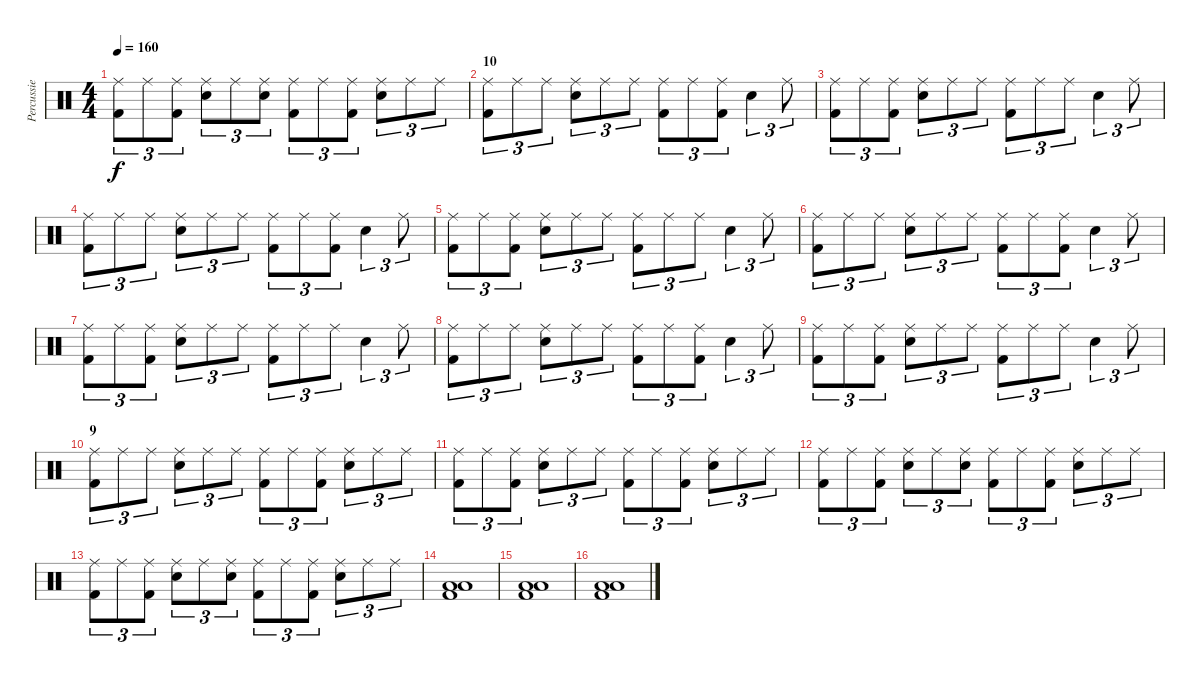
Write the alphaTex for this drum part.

\track ("Percussie" "Percussie") {instrument percussion}
\staff {score}
\articulation defaults
\ts (4 4)
\tempo 160
\clef neutral
\ks c
("Ride (middle)" "Kick (hit) 2").8{tu (3 2) dy f} "Ride (middle)".8{tu (3 2)} ("Ride (middle)" "Kick (hit) 2").8{tu (3 2)} ("Ride (middle)" "Snare (hit) 2").8{tu (3 2)} "Ride (middle)".8{tu (3 2)} ("Ride (middle)" "Snare (hit) 2").8{tu (3 2)} ("Ride (middle)" "Kick (hit) 2").8{tu (3 2)} "Ride (middle)".8{tu (3 2)} ("Ride (middle)" "Kick (hit) 2").8{tu (3 2)} ("Ride (middle)" "Snare (hit) 2").8{tu (3 2)} "Ride (middle)".8{tu (3 2)} "Ride (middle)".8{tu (3 2)} |
\section ("" "10")
("Ride (middle)" "Kick (hit) 2").8{tu (3 2)} "Ride (middle)".8{tu (3 2)} "Ride (middle)".8{tu (3 2)} ("Ride (middle)" "Snare (hit) 2").8{tu (3 2)} "Ride (middle)".8{tu (3 2)} "Ride (middle)".8{tu (3 2)} ("Ride (middle)" "Kick (hit) 2").8{tu (3 2)} "Ride (middle)".8{tu (3 2)} ("Ride (middle)" "Kick (hit) 2").8{tu (3 2)} "Snare (hit) 2".4{tu (3 2)} "Ride (middle)".8{tu (3 2)} |
("Ride (middle)" "Kick (hit) 2").8{tu (3 2)} "Ride (middle)".8{tu (3 2)} ("Ride (middle)" "Kick (hit) 2").8{tu (3 2)} ("Ride (middle)" "Snare (hit) 2").8{tu (3 2)} "Ride (middle)".8{tu (3 2)} "Ride (middle)".8{tu (3 2)} ("Ride (middle)" "Kick (hit) 2").8{tu (3 2)} "Ride (middle)".8{tu (3 2)} "Ride (middle)".8{tu (3 2)} "Snare (hit) 2".4{tu (3 2)} "Ride (middle)".8{tu (3 2)} |
("Ride (middle)" "Kick (hit) 2").8{tu (3 2)} "Ride (middle)".8{tu (3 2)} "Ride (middle)".8{tu (3 2)} ("Ride (middle)" "Snare (hit) 2").8{tu (3 2)} "Ride (middle)".8{tu (3 2)} "Ride (middle)".8{tu (3 2)} ("Ride (middle)" "Kick (hit) 2").8{tu (3 2)} "Ride (middle)".8{tu (3 2)} ("Ride (middle)" "Kick (hit) 2").8{tu (3 2)} "Snare (hit) 2".4{tu (3 2)} "Ride (middle)".8{tu (3 2)} |
("Ride (middle)" "Kick (hit) 2").8{tu (3 2)} "Ride (middle)".8{tu (3 2)} ("Ride (middle)" "Kick (hit) 2").8{tu (3 2)} ("Ride (middle)" "Snare (hit) 2").8{tu (3 2)} "Ride (middle)".8{tu (3 2)} "Ride (middle)".8{tu (3 2)} ("Ride (middle)" "Kick (hit) 2").8{tu (3 2)} "Ride (middle)".8{tu (3 2)} "Ride (middle)".8{tu (3 2)} "Snare (hit) 2".4{tu (3 2)} "Ride (middle)".8{tu (3 2)} |
("Ride (middle)" "Kick (hit) 2").8{tu (3 2)} "Ride (middle)".8{tu (3 2)} "Ride (middle)".8{tu (3 2)} ("Ride (middle)" "Snare (hit) 2").8{tu (3 2)} "Ride (middle)".8{tu (3 2)} "Ride (middle)".8{tu (3 2)} ("Ride (middle)" "Kick (hit) 2").8{tu (3 2)} "Ride (middle)".8{tu (3 2)} ("Ride (middle)" "Kick (hit) 2").8{tu (3 2)} "Snare (hit) 2".4{tu (3 2)} "Ride (middle)".8{tu (3 2)} |
("Ride (middle)" "Kick (hit) 2").8{tu (3 2)} "Ride (middle)".8{tu (3 2)} ("Ride (middle)" "Kick (hit) 2").8{tu (3 2)} ("Ride (middle)" "Snare (hit) 2").8{tu (3 2)} "Ride (middle)".8{tu (3 2)} "Ride (middle)".8{tu (3 2)} ("Ride (middle)" "Kick (hit) 2").8{tu (3 2)} "Ride (middle)".8{tu (3 2)} "Ride (middle)".8{tu (3 2)} "Snare (hit) 2".4{tu (3 2)} "Ride (middle)".8{tu (3 2)} |
("Ride (middle)" "Kick (hit) 2").8{tu (3 2)} "Ride (middle)".8{tu (3 2)} "Ride (middle)".8{tu (3 2)} ("Ride (middle)" "Snare (hit) 2").8{tu (3 2)} "Ride (middle)".8{tu (3 2)} "Ride (middle)".8{tu (3 2)} ("Ride (middle)" "Kick (hit) 2").8{tu (3 2)} "Ride (middle)".8{tu (3 2)} ("Ride (middle)" "Kick (hit) 2").8{tu (3 2)} "Snare (hit) 2".4{tu (3 2)} "Ride (middle)".8{tu (3 2)} |
("Ride (middle)" "Kick (hit) 2").8{tu (3 2)} "Ride (middle)".8{tu (3 2)} ("Ride (middle)" "Kick (hit) 2").8{tu (3 2)} ("Ride (middle)" "Snare (hit) 2").8{tu (3 2)} "Ride (middle)".8{tu (3 2)} "Ride (middle)".8{tu (3 2)} ("Ride (middle)" "Kick (hit) 2").8{tu (3 2)} "Ride (middle)".8{tu (3 2)} "Ride (middle)".8{tu (3 2)} "Snare (hit) 2".4{tu (3 2)} "Ride (middle)".8{tu (3 2)} |
\section ("" "9")
("Ride (middle)" "Kick (hit) 2").8{tu (3 2)} "Ride (middle)".8{tu (3 2)} "Ride (middle)".8{tu (3 2)} ("Ride (middle)" "Snare (hit) 2").8{tu (3 2)} "Ride (middle)".8{tu (3 2)} "Ride (middle)".8{tu (3 2)} ("Ride (middle)" "Kick (hit) 2").8{tu (3 2)} "Ride (middle)".8{tu (3 2)} ("Ride (middle)" "Kick (hit) 2").8{tu (3 2)} ("Ride (middle)" "Snare (hit) 2").8{tu (3 2)} "Ride (middle)".8{tu (3 2)} "Ride (middle)".8{tu (3 2)} |
("Ride (middle)" "Kick (hit) 2").8{tu (3 2)} "Ride (middle)".8{tu (3 2)} ("Ride (middle)" "Kick (hit) 2").8{tu (3 2)} ("Ride (middle)" "Snare (hit) 2").8{tu (3 2)} "Ride (middle)".8{tu (3 2)} "Ride (middle)".8{tu (3 2)} ("Ride (middle)" "Kick (hit) 2").8{tu (3 2)} "Ride (middle)".8{tu (3 2)} ("Ride (middle)" "Kick (hit) 2").8{tu (3 2)} ("Ride (middle)" "Snare (hit) 2").8{tu (3 2)} "Ride (middle)".8{tu (3 2)} "Ride (middle)".8{tu (3 2)} |
("Ride (middle)" "Kick (hit) 2").8{tu (3 2)} "Ride (middle)".8{tu (3 2)} ("Ride (middle)" "Kick (hit) 2").8{tu (3 2)} ("Ride (middle)" "Snare (hit) 2").8{tu (3 2)} "Ride (middle)".8{tu (3 2)} ("Ride (middle)" "Snare (hit) 2").8{tu (3 2)} ("Ride (middle)" "Kick (hit) 2").8{tu (3 2)} "Ride (middle)".8{tu (3 2)} ("Ride (middle)" "Kick (hit) 2").8{tu (3 2)} ("Ride (middle)" "Snare (hit) 2").8{tu (3 2)} "Ride (middle)".8{tu (3 2)} "Ride (middle)".8{tu (3 2)} |
("Ride (middle)" "Kick (hit) 2").8{tu (3 2)} "Ride (middle)".8{tu (3 2)} ("Ride (middle)" "Kick (hit) 2").8{tu (3 2)} ("Ride (middle)" "Snare (hit) 2").8{tu (3 2)} "Ride (middle)".8{tu (3 2)} ("Ride (middle)" "Snare (hit) 2").8{tu (3 2)} ("Ride (middle)" "Kick (hit) 2").8{tu (3 2)} "Ride (middle)".8{tu (3 2)} ("Ride (middle)" "Kick (hit) 2").8{tu (3 2)} ("Ride (middle)" "Snare (hit) 2").8{tu (3 2)} "Ride (middle)".8{tu (3 2)} "Ride (middle)".8{tu (3 2)} |
("Low Floor Tom (hit)" "Low Floor Tom (hit)" "Kick (hit) 2").1 |
("Low Floor Tom (hit)" "Low Floor Tom (hit)" "Kick (hit) 2").1 |
("Low Floor Tom (hit)" "Low Floor Tom (hit)" "Kick (hit) 2").1
